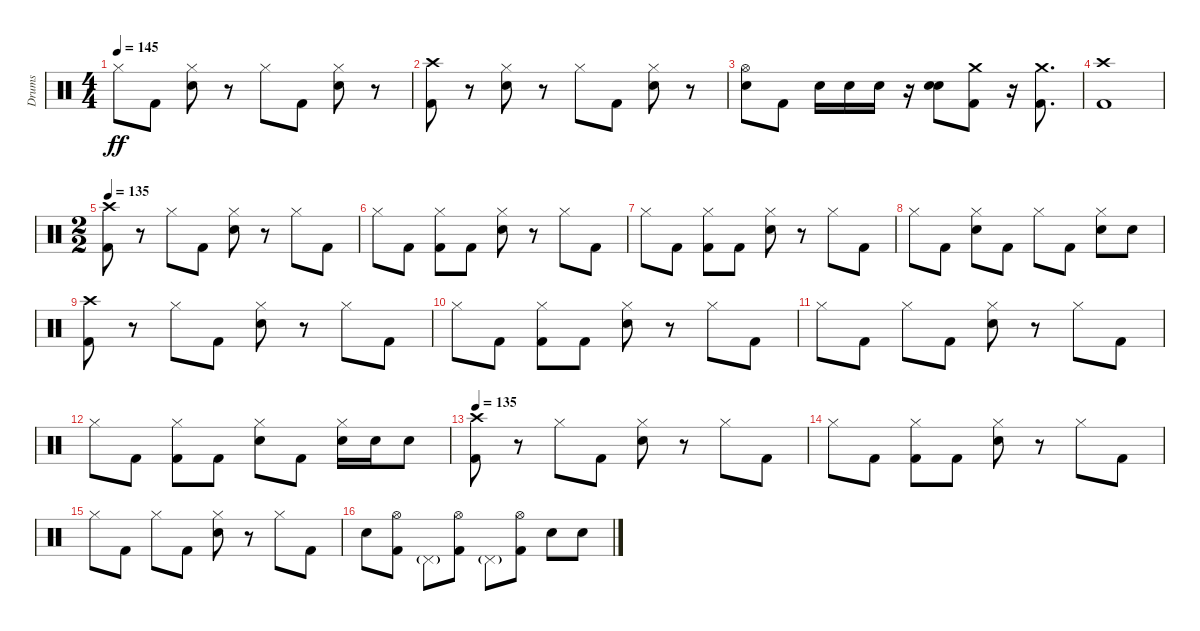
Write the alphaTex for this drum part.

\track ("Drums" "Drums") {instrument percussion}
\staff {score}
\articulation defaults
\ts (4 4)
\tempo 145
\clef neutral
\ks c "Hi-Hat (closed)".8{dy ff} "Kick (hit) 2".8
("Hi-Hat (closed)" "Snare (hit) 2").8 r.8 "Hi-Hat (closed)".8 "Kick (hit) 2".8 ("Hi-Hat (closed)" "Snare (hit) 2").8 r.8 |
("Crash high (hit)" "Kick (hit) 2").8 r.8 ("Hi-Hat (closed)" "Snare (hit) 2").8 r.8 "Hi-Hat (closed)".8 "Kick (hit) 2".8 ("Hi-Hat (closed)" "Snare (hit) 2").8 r.8 |
("Hi-Hat (open)" "Snare (hit) 2").8 "Kick (hit) 2".8 "Snare (hit) 2".16 "Snare (hit) 2".16 "Snare (hit) 2".16 r.16 ("Snare (hit) 2" "Snare (hit) 2").8{bd 480} ("Crash medium (hit)" "Kick (hit) 2").8 r.16 ("Crash medium (hit)" "Kick (hit) 2").8{d} |
("Crash high (hit)" "Kick (hit) 2").1 |
\ts (2 2)
\tempo 120
\tempo 135
("Crash high (hit)" "Kick (hit) 2").8 r.8 "Hi-Hat (closed)".8 "Kick (hit) 2".8 ("Hi-Hat (closed)" "Snare (hit) 2").8 r.8 "Hi-Hat (closed)".8 "Kick (hit) 2".8 |
"Hi-Hat (closed)".8 "Kick (hit) 2".8 ("Hi-Hat (closed)" "Kick (hit) 2").8 "Kick (hit) 2".8 ("Hi-Hat (closed)" "Snare (hit) 2").8 r.8 "Hi-Hat (closed)".8 "Kick (hit) 2".8 |
"Hi-Hat (closed)".8 "Kick (hit) 2".8 ("Hi-Hat (closed)" "Kick (hit) 2").8 "Kick (hit) 2".8 ("Hi-Hat (closed)" "Snare (hit) 2").8 r.8 "Hi-Hat (closed)".8 "Kick (hit) 2".8 |
"Hi-Hat (closed)".8 "Kick (hit) 2".8 ("Hi-Hat (closed)" "Snare (hit) 2").8 "Kick (hit) 2".8 "Hi-Hat (closed)".8 "Kick (hit) 2".8 ("Hi-Hat (closed)" "Snare (hit) 2").8 "Snare (hit) 2".8 |
("Crash high (hit)" "Kick (hit) 2").8 r.8 "Hi-Hat (closed)".8 "Kick (hit) 2".8 ("Hi-Hat (closed)" "Snare (hit) 2").8 r.8 "Hi-Hat (closed)".8 "Kick (hit) 2".8 |
"Hi-Hat (closed)".8 "Kick (hit) 2".8 ("Hi-Hat (closed)" "Kick (hit) 2").8 "Kick (hit) 2".8 ("Hi-Hat (closed)" "Snare (hit) 2").8 r.8 "Hi-Hat (closed)".8 "Kick (hit) 2".8 |
"Hi-Hat (closed)".8 "Kick (hit) 2".8 "Hi-Hat (closed)".8 "Kick (hit) 2".8 ("Hi-Hat (closed)" "Snare (hit) 2").8 r.8 "Hi-Hat (closed)".8 "Kick (hit) 2".8 |
"Hi-Hat (closed)".8 "Kick (hit) 2".8 ("Hi-Hat (closed)" "Kick (hit) 2").8 "Kick (hit) 2".8 ("Hi-Hat (closed)" "Snare (hit) 2").8 "Kick (hit) 2".8 ("Hi-Hat (closed)" "Snare (hit) 2").16 "Snare (hit) 2".16 "Snare (hit) 2".8 |
\tempo 135
("Crash high (hit)" "Kick (hit) 2").8 r.8 "Hi-Hat (closed)".8 "Kick (hit) 2".8 ("Hi-Hat (closed)" "Snare (hit) 2").8 r.8 "Hi-Hat (closed)".8 "Kick (hit) 2".8 |
"Hi-Hat (closed)".8 "Kick (hit) 2".8 ("Hi-Hat (closed)" "Kick (hit) 2").8 "Kick (hit) 2".8 ("Hi-Hat (closed)" "Snare (hit) 2").8 r.8 "Hi-Hat (closed)".8 "Kick (hit) 2".8 |
"Hi-Hat (closed)".8 "Kick (hit) 2".8 "Hi-Hat (closed)".8 "Kick (hit) 2".8 ("Hi-Hat (closed)" "Snare (hit) 2").8 r.8 "Hi-Hat (closed)".8 "Kick (hit) 2".8 |
"Snare (hit) 2".8 ("Hi-Hat (open)" "Kick (hit) 2").8 "Pedal Hi-Hat (hit)"{g}.8 ("Hi-Hat (open)" "Kick (hit) 2").8 "Pedal Hi-Hat (hit)"{g}.8 ("Hi-Hat (open)" "Kick (hit) 2").8 "Snare (hit) 2".8 "Snare (hit) 2".8
